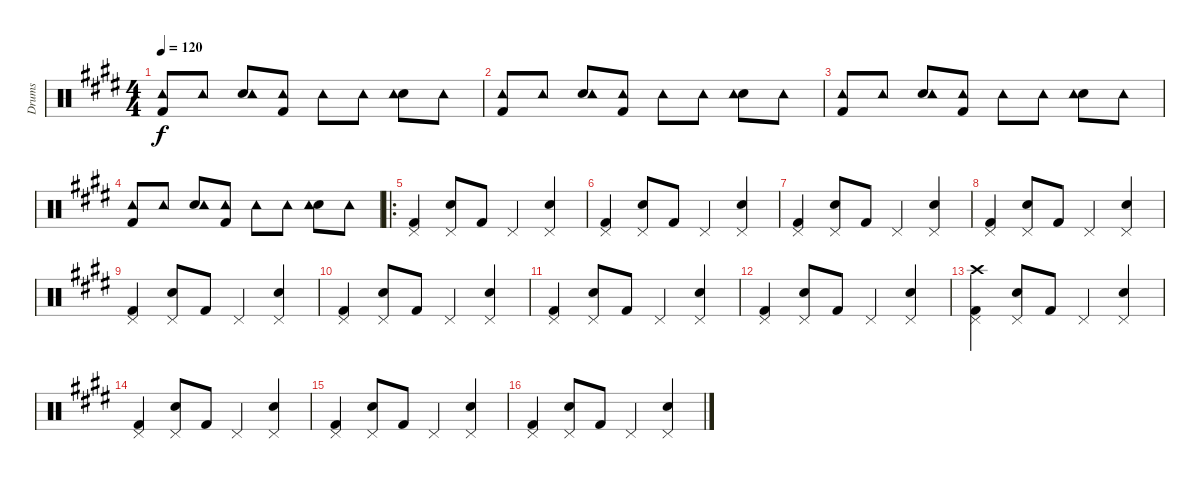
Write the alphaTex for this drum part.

\track ("Drums" "Drums") {instrument percussion}
\staff {score}
\articulation defaults
\ts (4 4)
\tempo 120
\clef neutral
\ks e
("Kick (hit) 2" "Tambourine (hit)").8{dy f} "Tambourine (hit)".8 ("Snare (hit) 2" "Tambourine (hit)").8 ("Kick (hit) 2" "Tambourine (hit)").8 "Tambourine (hit)".8 "Tambourine (hit)".8 ("Snare (hit) 2" "Tambourine (hit)").8 "Tambourine (hit)".8 |
("Kick (hit) 2" "Tambourine (hit)").8 "Tambourine (hit)".8 ("Snare (hit) 2" "Tambourine (hit)").8 ("Kick (hit) 2" "Tambourine (hit)").8 "Tambourine (hit)".8 "Tambourine (hit)".8 ("Snare (hit) 2" "Tambourine (hit)").8 "Tambourine (hit)".8 |
("Kick (hit) 2" "Tambourine (hit)").8 "Tambourine (hit)".8 ("Snare (hit) 2" "Tambourine (hit)").8 ("Kick (hit) 2" "Tambourine (hit)").8 "Tambourine (hit)".8 "Tambourine (hit)".8 ("Snare (hit) 2" "Tambourine (hit)").8 "Tambourine (hit)".8 |
("Kick (hit) 2" "Tambourine (hit)").8 "Tambourine (hit)".8 ("Snare (hit) 2" "Tambourine (hit)").8 ("Kick (hit) 2" "Tambourine (hit)").8 "Tambourine (hit)".8 "Tambourine (hit)".8 ("Snare (hit) 2" "Tambourine (hit)").8 "Tambourine (hit)".8 |
\ro
("Kick (hit) 2" "Pedal Hi-Hat (hit)").4 ("Snare (hit) 2" "Pedal Hi-Hat (hit)").8 "Kick (hit) 2".8 "Pedal Hi-Hat (hit)".4 ("Snare (hit) 2" "Pedal Hi-Hat (hit)").4 |
("Kick (hit) 2" "Pedal Hi-Hat (hit)").4 ("Snare (hit) 2" "Pedal Hi-Hat (hit)").8 "Kick (hit) 2".8 "Pedal Hi-Hat (hit)".4 ("Snare (hit) 2" "Pedal Hi-Hat (hit)").4 |
("Kick (hit) 2" "Pedal Hi-Hat (hit)").4 ("Snare (hit) 2" "Pedal Hi-Hat (hit)").8 "Kick (hit) 2".8 "Pedal Hi-Hat (hit)".4 ("Snare (hit) 2" "Pedal Hi-Hat (hit)").4 |
("Kick (hit) 2" "Pedal Hi-Hat (hit)").4 ("Snare (hit) 2" "Pedal Hi-Hat (hit)").8 "Kick (hit) 2".8 "Pedal Hi-Hat (hit)".4 ("Snare (hit) 2" "Pedal Hi-Hat (hit)").4 |
("Kick (hit) 2" "Pedal Hi-Hat (hit)").4 ("Snare (hit) 2" "Pedal Hi-Hat (hit)").8 "Kick (hit) 2".8 "Pedal Hi-Hat (hit)".4 ("Snare (hit) 2" "Pedal Hi-Hat (hit)").4 |
("Kick (hit) 2" "Pedal Hi-Hat (hit)").4 ("Snare (hit) 2" "Pedal Hi-Hat (hit)").8 "Kick (hit) 2".8 "Pedal Hi-Hat (hit)".4 ("Snare (hit) 2" "Pedal Hi-Hat (hit)").4 |
("Kick (hit) 2" "Pedal Hi-Hat (hit)").4 ("Snare (hit) 2" "Pedal Hi-Hat (hit)").8 "Kick (hit) 2".8 "Pedal Hi-Hat (hit)".4 ("Snare (hit) 2" "Pedal Hi-Hat (hit)").4 |
("Kick (hit) 2" "Pedal Hi-Hat (hit)").4 ("Snare (hit) 2" "Pedal Hi-Hat (hit)").8 "Kick (hit) 2".8 "Pedal Hi-Hat (hit)".4 ("Snare (hit) 2" "Pedal Hi-Hat (hit)").4 |
("Kick (hit) 2" "Pedal Hi-Hat (hit)" "Crash high (hit)").4 ("Snare (hit) 2" "Pedal Hi-Hat (hit)").8 "Kick (hit) 2".8 "Pedal Hi-Hat (hit)".4 ("Snare (hit) 2" "Pedal Hi-Hat (hit)").4 |
("Kick (hit) 2" "Pedal Hi-Hat (hit)").4 ("Snare (hit) 2" "Pedal Hi-Hat (hit)").8 "Kick (hit) 2".8 "Pedal Hi-Hat (hit)".4 ("Snare (hit) 2" "Pedal Hi-Hat (hit)").4 |
("Kick (hit) 2" "Pedal Hi-Hat (hit)").4 ("Snare (hit) 2" "Pedal Hi-Hat (hit)").8 "Kick (hit) 2".8 "Pedal Hi-Hat (hit)".4 ("Snare (hit) 2" "Pedal Hi-Hat (hit)").4 |
("Kick (hit) 2" "Pedal Hi-Hat (hit)").4 ("Snare (hit) 2" "Pedal Hi-Hat (hit)").8 "Kick (hit) 2".8 "Pedal Hi-Hat (hit)".4 ("Snare (hit) 2" "Pedal Hi-Hat (hit)").4
